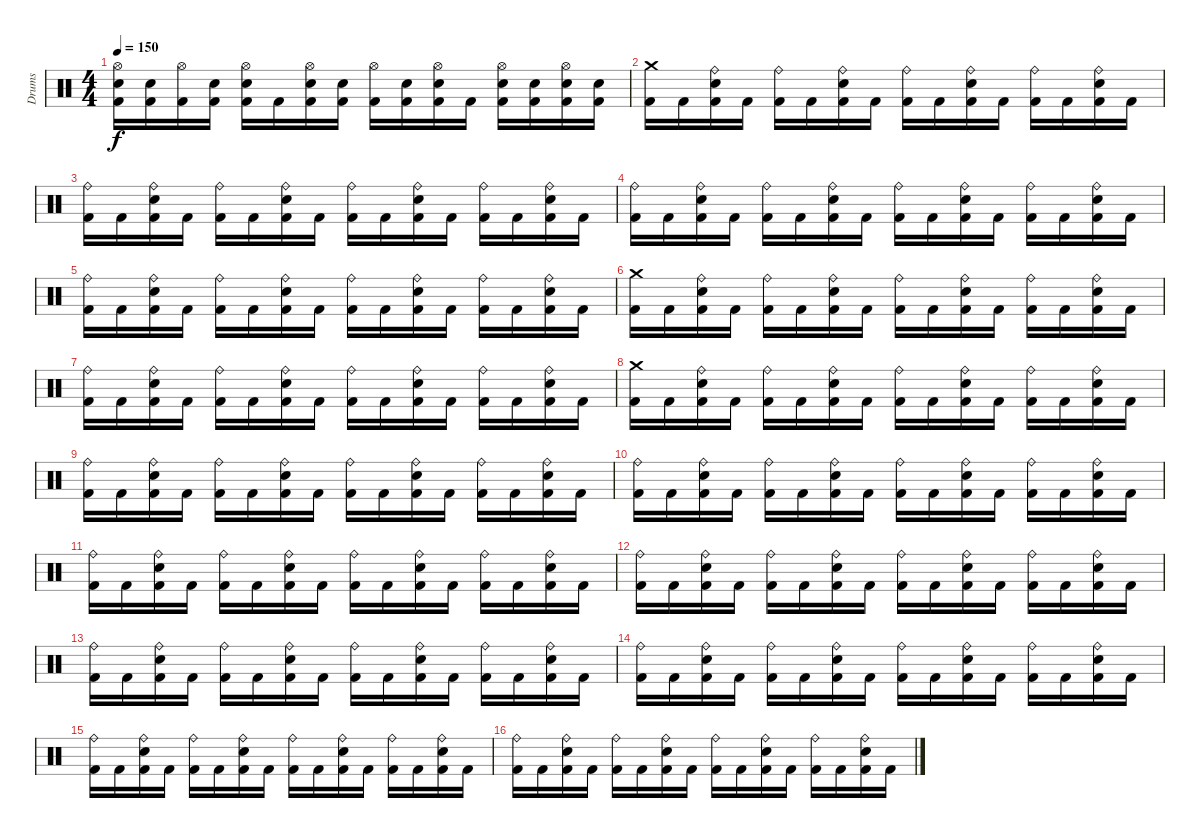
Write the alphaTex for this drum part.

\track ("Drums" "Drums") {instrument percussion}
\staff {score}
\articulation defaults
\ts (4 4)
\tempo 150
\clef neutral
\ks c
("Kick (hit) 2" "Snare (hit) 2" "Hi-Hat (open)").16{dy f} ("Kick (hit) 2" "Snare (hit) 2").16 ("Kick (hit) 2" "Hi-Hat (open)").16 ("Kick (hit) 2" "Snare (hit) 2").16 ("Kick (hit) 2" "Snare (hit) 2" "Hi-Hat (open)").16 "Kick (hit) 2".16 ("Kick (hit) 2" "Snare (hit) 2" "Hi-Hat (open)").16 ("Kick (hit) 2" "Snare (hit) 2").16 ("Kick (hit) 2" "Hi-Hat (open)").16 ("Kick (hit) 2" "Snare (hit) 2").16 ("Kick (hit) 2" "Snare (hit) 2" "Hi-Hat (open)").16 "Kick (hit) 2".16 ("Kick (hit) 2" "Snare (hit) 2" "Hi-Hat (open)").16 ("Kick (hit) 2" "Snare (hit) 2").16 ("Kick (hit) 2" "Snare (hit) 2" "Hi-Hat (open)").16 ("Kick (hit) 2" "Snare (hit) 2").16 |
("Kick (hit) 2" "Crash medium (hit)").16 "Kick (hit) 2".16 ("Kick (hit) 2" "Snare (hit) 2" "Ride (bell)").16 "Kick (hit) 2".16 ("Kick (hit) 2" "Ride (bell)").16 "Kick (hit) 2".16 ("Kick (hit) 2" "Snare (hit) 2" "Ride (bell)").16 "Kick (hit) 2".16 ("Kick (hit) 2" "Ride (bell)").16 "Kick (hit) 2".16 ("Kick (hit) 2" "Snare (hit) 2" "Ride (bell)").16 "Kick (hit) 2".16 ("Kick (hit) 2" "Ride (bell)").16 "Kick (hit) 2".16 ("Kick (hit) 2" "Snare (hit) 2" "Ride (bell)").16 "Kick (hit) 2".16 |
("Kick (hit) 2" "Ride (bell)").16 "Kick (hit) 2".16 ("Kick (hit) 2" "Snare (hit) 2" "Ride (bell)").16 "Kick (hit) 2".16 ("Kick (hit) 2" "Ride (bell)").16 "Kick (hit) 2".16 ("Kick (hit) 2" "Snare (hit) 2" "Ride (bell)").16 "Kick (hit) 2".16 ("Kick (hit) 2" "Ride (bell)").16 "Kick (hit) 2".16 ("Kick (hit) 2" "Snare (hit) 2" "Ride (bell)").16 "Kick (hit) 2".16 ("Kick (hit) 2" "Ride (bell)").16 "Kick (hit) 2".16 ("Kick (hit) 2" "Snare (hit) 2" "Ride (bell)").16 "Kick (hit) 2".16 |
("Kick (hit) 2" "Ride (bell)").16 "Kick (hit) 2".16 ("Kick (hit) 2" "Snare (hit) 2" "Ride (bell)").16 "Kick (hit) 2".16 ("Kick (hit) 2" "Ride (bell)").16 "Kick (hit) 2".16 ("Kick (hit) 2" "Snare (hit) 2" "Ride (bell)").16 "Kick (hit) 2".16 ("Kick (hit) 2" "Ride (bell)").16 "Kick (hit) 2".16 ("Kick (hit) 2" "Snare (hit) 2" "Ride (bell)").16 "Kick (hit) 2".16 ("Kick (hit) 2" "Ride (bell)").16 "Kick (hit) 2".16 ("Kick (hit) 2" "Snare (hit) 2" "Ride (bell)").16 "Kick (hit) 2".16 |
("Kick (hit) 2" "Ride (bell)").16 "Kick (hit) 2".16 ("Kick (hit) 2" "Snare (hit) 2" "Ride (bell)").16 "Kick (hit) 2".16 ("Kick (hit) 2" "Ride (bell)").16 "Kick (hit) 2".16 ("Kick (hit) 2" "Snare (hit) 2" "Ride (bell)").16 "Kick (hit) 2".16 ("Kick (hit) 2" "Ride (bell)").16 "Kick (hit) 2".16 ("Kick (hit) 2" "Snare (hit) 2" "Ride (bell)").16 "Kick (hit) 2".16 ("Kick (hit) 2" "Ride (bell)").16 "Kick (hit) 2".16 ("Kick (hit) 2" "Snare (hit) 2" "Ride (bell)").16 "Kick (hit) 2".16 |
("Kick (hit) 2" "Crash medium (hit)").16 "Kick (hit) 2".16 ("Kick (hit) 2" "Snare (hit) 2" "Ride (bell)").16 "Kick (hit) 2".16 ("Kick (hit) 2" "Ride (bell)").16 "Kick (hit) 2".16 ("Kick (hit) 2" "Snare (hit) 2" "Ride (bell)").16 "Kick (hit) 2".16 ("Kick (hit) 2" "Ride (bell)").16 "Kick (hit) 2".16 ("Kick (hit) 2" "Snare (hit) 2" "Ride (bell)").16 "Kick (hit) 2".16 ("Kick (hit) 2" "Ride (bell)").16 "Kick (hit) 2".16 ("Kick (hit) 2" "Snare (hit) 2" "Ride (bell)").16 "Kick (hit) 2".16 |
("Kick (hit) 2" "Ride (bell)").16 "Kick (hit) 2".16 ("Kick (hit) 2" "Snare (hit) 2" "Ride (bell)").16 "Kick (hit) 2".16 ("Kick (hit) 2" "Ride (bell)").16 "Kick (hit) 2".16 ("Kick (hit) 2" "Snare (hit) 2" "Ride (bell)").16 "Kick (hit) 2".16 ("Kick (hit) 2" "Ride (bell)").16 "Kick (hit) 2".16 ("Kick (hit) 2" "Snare (hit) 2" "Ride (bell)").16 "Kick (hit) 2".16 ("Kick (hit) 2" "Ride (bell)").16 "Kick (hit) 2".16 ("Kick (hit) 2" "Snare (hit) 2" "Ride (bell)").16 "Kick (hit) 2".16 |
("Kick (hit) 2" "Crash medium (hit)").16 "Kick (hit) 2".16 ("Kick (hit) 2" "Snare (hit) 2" "Ride (bell)").16 "Kick (hit) 2".16 ("Kick (hit) 2" "Ride (bell)").16 "Kick (hit) 2".16 ("Kick (hit) 2" "Snare (hit) 2" "Ride (bell)").16 "Kick (hit) 2".16 ("Kick (hit) 2" "Ride (bell)").16 "Kick (hit) 2".16 ("Kick (hit) 2" "Snare (hit) 2" "Ride (bell)").16 "Kick (hit) 2".16 ("Kick (hit) 2" "Ride (bell)").16 "Kick (hit) 2".16 ("Kick (hit) 2" "Snare (hit) 2" "Ride (bell)").16 "Kick (hit) 2".16 |
("Kick (hit) 2" "Ride (bell)").16 "Kick (hit) 2".16 ("Kick (hit) 2" "Snare (hit) 2" "Ride (bell)").16 "Kick (hit) 2".16 ("Kick (hit) 2" "Ride (bell)").16 "Kick (hit) 2".16 ("Kick (hit) 2" "Snare (hit) 2" "Ride (bell)").16 "Kick (hit) 2".16 ("Kick (hit) 2" "Ride (bell)").16 "Kick (hit) 2".16 ("Kick (hit) 2" "Snare (hit) 2" "Ride (bell)").16 "Kick (hit) 2".16 ("Kick (hit) 2" "Ride (bell)").16 "Kick (hit) 2".16 ("Kick (hit) 2" "Snare (hit) 2" "Ride (bell)").16 "Kick (hit) 2".16 |
("Kick (hit) 2" "Ride (bell)").16 "Kick (hit) 2".16 ("Kick (hit) 2" "Snare (hit) 2" "Ride (bell)").16 "Kick (hit) 2".16 ("Kick (hit) 2" "Ride (bell)").16 "Kick (hit) 2".16 ("Kick (hit) 2" "Snare (hit) 2" "Ride (bell)").16 "Kick (hit) 2".16 ("Kick (hit) 2" "Ride (bell)").16 "Kick (hit) 2".16 ("Kick (hit) 2" "Snare (hit) 2" "Ride (bell)").16 "Kick (hit) 2".16 ("Kick (hit) 2" "Ride (bell)").16 "Kick (hit) 2".16 ("Kick (hit) 2" "Snare (hit) 2" "Ride (bell)").16 "Kick (hit) 2".16 |
("Kick (hit) 2" "Ride (bell)").16 "Kick (hit) 2".16 ("Kick (hit) 2" "Snare (hit) 2" "Ride (bell)").16 "Kick (hit) 2".16 ("Kick (hit) 2" "Ride (bell)").16 "Kick (hit) 2".16 ("Kick (hit) 2" "Snare (hit) 2" "Ride (bell)").16 "Kick (hit) 2".16 ("Kick (hit) 2" "Ride (bell)").16 "Kick (hit) 2".16 ("Kick (hit) 2" "Snare (hit) 2" "Ride (bell)").16 "Kick (hit) 2".16 ("Kick (hit) 2" "Ride (bell)").16 "Kick (hit) 2".16 ("Kick (hit) 2" "Snare (hit) 2" "Ride (bell)").16 "Kick (hit) 2".16 |
("Kick (hit) 2" "Ride (bell)").16 "Kick (hit) 2".16 ("Kick (hit) 2" "Snare (hit) 2" "Ride (bell)").16 "Kick (hit) 2".16 ("Kick (hit) 2" "Ride (bell)").16 "Kick (hit) 2".16 ("Kick (hit) 2" "Snare (hit) 2" "Ride (bell)").16 "Kick (hit) 2".16 ("Kick (hit) 2" "Ride (bell)").16 "Kick (hit) 2".16 ("Kick (hit) 2" "Snare (hit) 2" "Ride (bell)").16 "Kick (hit) 2".16 ("Kick (hit) 2" "Ride (bell)").16 "Kick (hit) 2".16 ("Kick (hit) 2" "Snare (hit) 2" "Ride (bell)").16 "Kick (hit) 2".16 |
("Kick (hit) 2" "Ride (bell)").16 "Kick (hit) 2".16 ("Kick (hit) 2" "Snare (hit) 2" "Ride (bell)").16 "Kick (hit) 2".16 ("Kick (hit) 2" "Ride (bell)").16 "Kick (hit) 2".16 ("Kick (hit) 2" "Snare (hit) 2" "Ride (bell)").16 "Kick (hit) 2".16 ("Kick (hit) 2" "Ride (bell)").16 "Kick (hit) 2".16 ("Kick (hit) 2" "Snare (hit) 2" "Ride (bell)").16 "Kick (hit) 2".16 ("Kick (hit) 2" "Ride (bell)").16 "Kick (hit) 2".16 ("Kick (hit) 2" "Snare (hit) 2" "Ride (bell)").16 "Kick (hit) 2".16 |
("Kick (hit) 2" "Ride (bell)").16 "Kick (hit) 2".16 ("Kick (hit) 2" "Snare (hit) 2" "Ride (bell)").16 "Kick (hit) 2".16 ("Kick (hit) 2" "Ride (bell)").16 "Kick (hit) 2".16 ("Kick (hit) 2" "Snare (hit) 2" "Ride (bell)").16 "Kick (hit) 2".16 ("Kick (hit) 2" "Ride (bell)").16 "Kick (hit) 2".16 ("Kick (hit) 2" "Snare (hit) 2" "Ride (bell)").16 "Kick (hit) 2".16 ("Kick (hit) 2" "Ride (bell)").16 "Kick (hit) 2".16 ("Kick (hit) 2" "Snare (hit) 2" "Ride (bell)").16 "Kick (hit) 2".16 |
("Kick (hit) 2" "Ride (bell)").16 "Kick (hit) 2".16 ("Kick (hit) 2" "Snare (hit) 2" "Ride (bell)").16 "Kick (hit) 2".16 ("Kick (hit) 2" "Ride (bell)").16 "Kick (hit) 2".16 ("Kick (hit) 2" "Snare (hit) 2" "Ride (bell)").16 "Kick (hit) 2".16 ("Kick (hit) 2" "Ride (bell)").16 "Kick (hit) 2".16 ("Kick (hit) 2" "Snare (hit) 2" "Ride (bell)").16 "Kick (hit) 2".16 ("Kick (hit) 2" "Ride (bell)").16 "Kick (hit) 2".16 ("Kick (hit) 2" "Snare (hit) 2" "Ride (bell)").16 "Kick (hit) 2".16 |
("Kick (hit) 2" "Ride (bell)").16 "Kick (hit) 2".16 ("Kick (hit) 2" "Snare (hit) 2" "Ride (bell)").16 "Kick (hit) 2".16 ("Kick (hit) 2" "Ride (bell)").16 "Kick (hit) 2".16 ("Kick (hit) 2" "Snare (hit) 2" "Ride (bell)").16 "Kick (hit) 2".16 ("Kick (hit) 2" "Ride (bell)").16 "Kick (hit) 2".16 ("Kick (hit) 2" "Snare (hit) 2" "Ride (bell)").16 "Kick (hit) 2".16 ("Kick (hit) 2" "Ride (bell)").16 "Kick (hit) 2".16 ("Kick (hit) 2" "Snare (hit) 2" "Ride (bell)").16 "Kick (hit) 2".16
